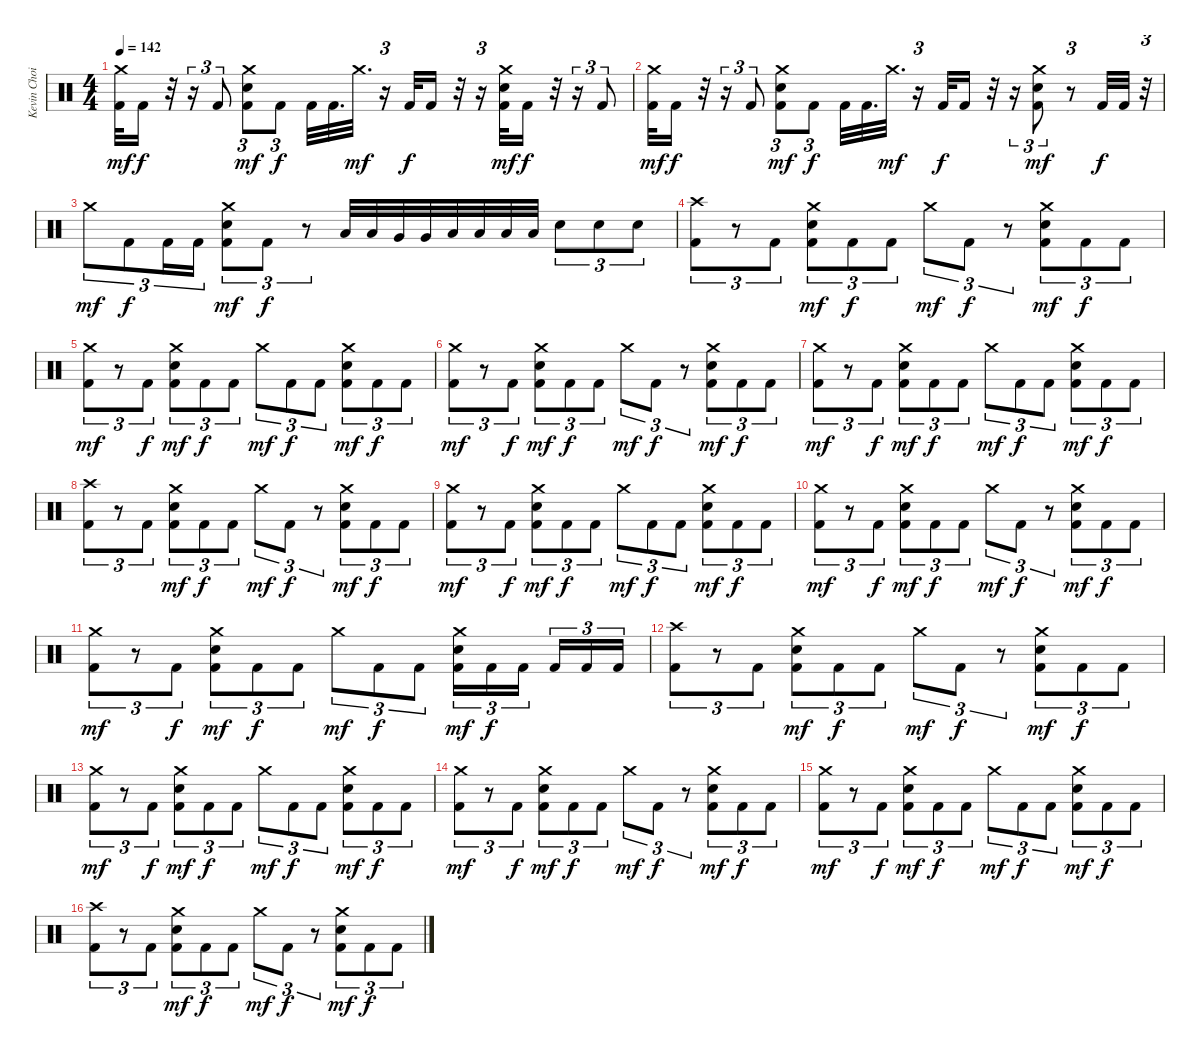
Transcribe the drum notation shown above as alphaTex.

\track ("Kevin Choiral" "Kevin Choi") {instrument percussion}
\staff
\articulation defaults
\ts (4 4)
\tempo 142
\clef neutral
\ks c
("Crash medium (hit)" "Kick (hit) 2").32{dy mf} "Kick (hit) 2".16{dy f} r.32 r.16{tu (3 2)} "Kick (hit) 2".8{tu (3 2)} ("Crash medium (hit)" "Electric Snare (hit)" "Kick (hit) 2").8{tu (3 2) dy mf} "Kick (hit) 2".8{tu (3 2) dy f} "Kick (hit) 2".32 "Kick (hit) 2".32{d} "Crash medium (hit)".32{d dy mf} r.16{tu (3 2)} "Kick (hit) 2".32{dy f} "Kick (hit) 2".16 r.32 r.16{tu (3 2)} ("Crash medium (hit)" "Electric Snare (hit)" "Kick (hit) 2").32{dy mf} "Kick (hit) 2".16{dy f} r.32 r.16{tu (3 2)} "Kick (hit) 2".8{tu (3 2)} |
("Crash medium (hit)" "Kick (hit) 2").32{dy mf} "Kick (hit) 2".16{dy f} r.32 r.16{tu (3 2)} "Kick (hit) 2".8{tu (3 2)} ("Crash medium (hit)" "Electric Snare (hit)" "Kick (hit) 2").8{tu (3 2) dy mf} "Kick (hit) 2".8{tu (3 2) dy f} "Kick (hit) 2".32 "Kick (hit) 2".32{d} "Crash medium (hit)".32{d dy mf} r.16{tu (3 2)} "Kick (hit) 2".32{dy f} "Kick (hit) 2".16 r.32 r.16{tu (3 2)} ("Crash medium (hit)" "Electric Snare (hit)" "Kick (hit) 2").8{tu (3 2) dy mf} r.8{tu (3 2)} "Kick (hit) 2".32{dy f} "Kick (hit) 2".32 r.32{tu (3 2)} |
"Crash medium (hit)".8{tu (3 2) dy mf} "Kick (hit) 2".8{tu (3 2) dy f} "Kick (hit) 2".16{tu (3 2)} "Kick (hit) 2".16{tu (3 2)} ("Crash medium (hit)" "Electric Snare (hit)" "Kick (hit) 2").8{tu (3 2) dy mf} "Kick (hit) 2".8{tu (3 2) dy f} r.8{tu (3 2)} "Low Tom (hit)".32 "Low Tom (hit)".32 "Very Low Tom (hit)".32 "Very Low Tom (hit)".32 "Low Floor Tom (hit)".32 "Low Floor Tom (hit)".32 "Low Floor Tom (hit)".32 "Low Floor Tom (hit)".32 "Electric Snare (hit)".8{tu (3 2)} "Electric Snare (hit)".8{tu (3 2)} "Electric Snare (hit)".8{tu (3 2)} |
("Crash high (hit)" "Kick (hit) 2").8{tu (3 2)} r.8{tu (3 2)} "Kick (hit) 2".8{tu (3 2)} ("Crash medium (hit)" "Electric Snare (hit)" "Kick (hit) 2").8{tu (3 2) dy mf} "Kick (hit) 2".8{tu (3 2) dy f} "Kick (hit) 2".8{tu (3 2)} "Crash medium (hit)".8{tu (3 2) dy mf} "Kick (hit) 2".8{tu (3 2) dy f} r.8{tu (3 2)} ("Crash medium (hit)" "Electric Snare (hit)" "Kick (hit) 2").8{tu (3 2) dy mf} "Kick (hit) 2".8{tu (3 2) dy f} "Kick (hit) 2".8{tu (3 2)} |
("Crash medium (hit)" "Kick (hit) 2").8{tu (3 2) dy mf} r.8{tu (3 2)} "Kick (hit) 2".8{tu (3 2) dy f} ("Crash medium (hit)" "Electric Snare (hit)" "Kick (hit) 2").8{tu (3 2) dy mf} "Kick (hit) 2".8{tu (3 2) dy f} "Kick (hit) 2".8{tu (3 2)} "Crash medium (hit)".8{tu (3 2) dy mf} "Kick (hit) 2".8{tu (3 2) dy f} "Kick (hit) 2".8{tu (3 2)} ("Crash medium (hit)" "Electric Snare (hit)" "Kick (hit) 2").8{tu (3 2) dy mf} "Kick (hit) 2".8{tu (3 2) dy f} "Kick (hit) 2".8{tu (3 2)} |
("Crash medium (hit)" "Kick (hit) 2").8{tu (3 2) dy mf} r.8{tu (3 2)} "Kick (hit) 2".8{tu (3 2) dy f} ("Crash medium (hit)" "Electric Snare (hit)" "Kick (hit) 2").8{tu (3 2) dy mf} "Kick (hit) 2".8{tu (3 2) dy f} "Kick (hit) 2".8{tu (3 2)} "Crash medium (hit)".8{tu (3 2) dy mf} "Kick (hit) 2".8{tu (3 2) dy f} r.8{tu (3 2)} ("Crash medium (hit)" "Electric Snare (hit)" "Kick (hit) 2").8{tu (3 2) dy mf} "Kick (hit) 2".8{tu (3 2) dy f} "Kick (hit) 2".8{tu (3 2)} |
("Crash medium (hit)" "Kick (hit) 2").8{tu (3 2) dy mf} r.8{tu (3 2)} "Kick (hit) 2".8{tu (3 2) dy f} ("Crash medium (hit)" "Electric Snare (hit)" "Kick (hit) 2").8{tu (3 2) dy mf} "Kick (hit) 2".8{tu (3 2) dy f} "Kick (hit) 2".8{tu (3 2)} "Crash medium (hit)".8{tu (3 2) dy mf} "Kick (hit) 2".8{tu (3 2) dy f} "Kick (hit) 2".8{tu (3 2)} ("Crash medium (hit)" "Electric Snare (hit)" "Kick (hit) 2").8{tu (3 2) dy mf} "Kick (hit) 2".8{tu (3 2) dy f} "Kick (hit) 2".8{tu (3 2)} |
("Crash high (hit)" "Kick (hit) 2").8{tu (3 2)} r.8{tu (3 2)} "Kick (hit) 2".8{tu (3 2)} ("Crash medium (hit)" "Electric Snare (hit)" "Kick (hit) 2").8{tu (3 2) dy mf} "Kick (hit) 2".8{tu (3 2) dy f} "Kick (hit) 2".8{tu (3 2)} "Crash medium (hit)".8{tu (3 2) dy mf} "Kick (hit) 2".8{tu (3 2) dy f} r.8{tu (3 2)} ("Crash medium (hit)" "Electric Snare (hit)" "Kick (hit) 2").8{tu (3 2) dy mf} "Kick (hit) 2".8{tu (3 2) dy f} "Kick (hit) 2".8{tu (3 2)} |
("Crash medium (hit)" "Kick (hit) 2").8{tu (3 2) dy mf} r.8{tu (3 2)} "Kick (hit) 2".8{tu (3 2) dy f} ("Crash medium (hit)" "Electric Snare (hit)" "Kick (hit) 2").8{tu (3 2) dy mf} "Kick (hit) 2".8{tu (3 2) dy f} "Kick (hit) 2".8{tu (3 2)} "Crash medium (hit)".8{tu (3 2) dy mf} "Kick (hit) 2".8{tu (3 2) dy f} "Kick (hit) 2".8{tu (3 2)} ("Crash medium (hit)" "Electric Snare (hit)" "Kick (hit) 2").8{tu (3 2) dy mf} "Kick (hit) 2".8{tu (3 2) dy f} "Kick (hit) 2".8{tu (3 2)} |
("Crash medium (hit)" "Kick (hit) 2").8{tu (3 2) dy mf} r.8{tu (3 2)} "Kick (hit) 2".8{tu (3 2) dy f} ("Crash medium (hit)" "Electric Snare (hit)" "Kick (hit) 2").8{tu (3 2) dy mf} "Kick (hit) 2".8{tu (3 2) dy f} "Kick (hit) 2".8{tu (3 2)} "Crash medium (hit)".8{tu (3 2) dy mf} "Kick (hit) 2".8{tu (3 2) dy f} r.8{tu (3 2)} ("Crash medium (hit)" "Electric Snare (hit)" "Kick (hit) 2").8{tu (3 2) dy mf} "Kick (hit) 2".8{tu (3 2) dy f} "Kick (hit) 2".8{tu (3 2)} |
("Crash medium (hit)" "Kick (hit) 2").8{tu (3 2) dy mf} r.8{tu (3 2)} "Kick (hit) 2".8{tu (3 2) dy f} ("Crash medium (hit)" "Electric Snare (hit)" "Kick (hit) 2").8{tu (3 2) dy mf} "Kick (hit) 2".8{tu (3 2) dy f} "Kick (hit) 2".8{tu (3 2)} "Crash medium (hit)".8{tu (3 2) dy mf} "Kick (hit) 2".8{tu (3 2) dy f} "Kick (hit) 2".8{tu (3 2)} ("Crash medium (hit)" "Electric Snare (hit)" "Kick (hit) 2").16{tu (3 2) dy mf} "Kick (hit) 2".16{tu (3 2) dy f} "Kick (hit) 2".16{tu (3 2) beam splitsecondary} "Kick (hit) 2".16{tu (3 2)} "Kick (hit) 2".16{tu (3 2)} "Kick (hit) 2".16{tu (3 2)} |
("Crash high (hit)" "Kick (hit) 2").8{tu (3 2)} r.8{tu (3 2)} "Kick (hit) 2".8{tu (3 2)} ("Crash medium (hit)" "Electric Snare (hit)" "Kick (hit) 2").8{tu (3 2) dy mf} "Kick (hit) 2".8{tu (3 2) dy f} "Kick (hit) 2".8{tu (3 2)} "Crash medium (hit)".8{tu (3 2) dy mf} "Kick (hit) 2".8{tu (3 2) dy f} r.8{tu (3 2)} ("Crash medium (hit)" "Electric Snare (hit)" "Kick (hit) 2").8{tu (3 2) dy mf} "Kick (hit) 2".8{tu (3 2) dy f} "Kick (hit) 2".8{tu (3 2)} |
("Crash medium (hit)" "Kick (hit) 2").8{tu (3 2) dy mf} r.8{tu (3 2)} "Kick (hit) 2".8{tu (3 2) dy f} ("Crash medium (hit)" "Electric Snare (hit)" "Kick (hit) 2").8{tu (3 2) dy mf} "Kick (hit) 2".8{tu (3 2) dy f} "Kick (hit) 2".8{tu (3 2)} "Crash medium (hit)".8{tu (3 2) dy mf} "Kick (hit) 2".8{tu (3 2) dy f} "Kick (hit) 2".8{tu (3 2)} ("Crash medium (hit)" "Electric Snare (hit)" "Kick (hit) 2").8{tu (3 2) dy mf} "Kick (hit) 2".8{tu (3 2) dy f} "Kick (hit) 2".8{tu (3 2)} |
("Crash medium (hit)" "Kick (hit) 2").8{tu (3 2) dy mf} r.8{tu (3 2)} "Kick (hit) 2".8{tu (3 2) dy f} ("Crash medium (hit)" "Electric Snare (hit)" "Kick (hit) 2").8{tu (3 2) dy mf} "Kick (hit) 2".8{tu (3 2) dy f} "Kick (hit) 2".8{tu (3 2)} "Crash medium (hit)".8{tu (3 2) dy mf} "Kick (hit) 2".8{tu (3 2) dy f} r.8{tu (3 2)} ("Crash medium (hit)" "Electric Snare (hit)" "Kick (hit) 2").8{tu (3 2) dy mf} "Kick (hit) 2".8{tu (3 2) dy f} "Kick (hit) 2".8{tu (3 2)} |
("Crash medium (hit)" "Kick (hit) 2").8{tu (3 2) dy mf} r.8{tu (3 2)} "Kick (hit) 2".8{tu (3 2) dy f} ("Crash medium (hit)" "Electric Snare (hit)" "Kick (hit) 2").8{tu (3 2) dy mf} "Kick (hit) 2".8{tu (3 2) dy f} "Kick (hit) 2".8{tu (3 2)} "Crash medium (hit)".8{tu (3 2) dy mf} "Kick (hit) 2".8{tu (3 2) dy f} "Kick (hit) 2".8{tu (3 2)} ("Crash medium (hit)" "Electric Snare (hit)" "Kick (hit) 2").8{tu (3 2) dy mf} "Kick (hit) 2".8{tu (3 2) dy f} "Kick (hit) 2".8{tu (3 2)} |
("Crash high (hit)" "Kick (hit) 2").8{tu (3 2)} r.8{tu (3 2)} "Kick (hit) 2".8{tu (3 2)} ("Crash medium (hit)" "Electric Snare (hit)" "Kick (hit) 2").8{tu (3 2) dy mf} "Kick (hit) 2".8{tu (3 2) dy f} "Kick (hit) 2".8{tu (3 2)} "Crash medium (hit)".8{tu (3 2) dy mf} "Kick (hit) 2".8{tu (3 2) dy f} r.8{tu (3 2)} ("Crash medium (hit)" "Electric Snare (hit)" "Kick (hit) 2").8{tu (3 2) dy mf} "Kick (hit) 2".8{tu (3 2) dy f} "Kick (hit) 2".8{tu (3 2)}
